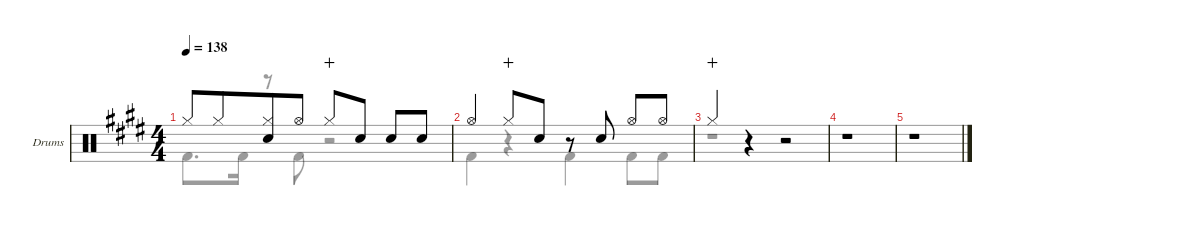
\defaultSystemsLayout 4
\hideDynamics
\bracketExtendMode nobrackets
\firstSystemTrackNameOrientation horizontal
\track ("Drums" "Drums") {defaultSystemsLayout 4 instrument percussion}
\staff {score}
\articulation defaults
\voice
\ts (4 4)
\tempo 138
\clef neutral
\scale
0.244132
\ks c#minor "Hi-Hat (closed)"{acc forcenatural}.8{dy f beam Up} "Hi-Hat (closed)"{acc forcenatural}.8{dy mp beam Up beam merge}
("Hi-Hat (closed)"{acc forcenatural} "Snare (hit) 2"{acc forcenatural}).8{dy f beam Up} "Hi-Hat (open)"{acc forcenatural}.8{beam Up} "Hi-Hat (closed)"{acc forcenatural}.8{dy mp wahc beam Up} "Snare (hit) 2"{acc forcenatural}.8{dy f beam Up} "Snare (hit) 2"{acc forcenatural}.8{beam Up} "Snare (hit) 2"{acc forcenatural}.8{beam Up} |
\scale
0.267605 "Hi-Hat (open)"{acc forcenatural}.4{beam Up} "Hi-Hat (closed)"{acc forcenatural}.8{dy mp wahc beam Up} "Snare (hit) 2"{acc forcenatural}.8{dy f beam Up} r.8{beam Up} "Snare (hit) 2"{acc forcenatural}.8{beam Up} "Hi-Hat (open)"{acc forcenatural}.8{beam Up} "Hi-Hat (open)"{acc forcenatural}.8{beam Up} |
\scale
0.244132 "Hi-Hat (closed)"{acc forcenatural}.4{dy mp wahc beam Up} r.4{beam Up} r.2{beam Up} |
\scale
0.244132 r.1{beam Up} |
\scale
0.244131 r.1{beam Up}
\voice
\clef neutral
\ottava regular
\simile none
\scale
0.244132
\ks c#minor "Kick (hit) 2"{acc forcenatural}.8{d dy f beam Down} "Kick (hit) 2"{acc forcenatural}.16{beam Down beam split}
r.8{beam Down beam split} "Kick (hit) 2"{acc forcenatural}.8{beam Down} r.2{beam Down} |
\scale
0.267605 "Kick (hit) 2"{acc forcenatural}.4{beam Down} r.4{beam Down} "Kick (hit) 2"{acc forcenatural}.4{beam Down} "Kick (hit) 2"{acc forcenatural}.8{beam Down} "Kick (hit) 2"{acc forcenatural}.8{beam Down} |
\scale
0.244132 r.1{beam Down} |
\scale
0.244132 r.1{beam Down} |
\scale
0.244131 r.1{beam Down}
